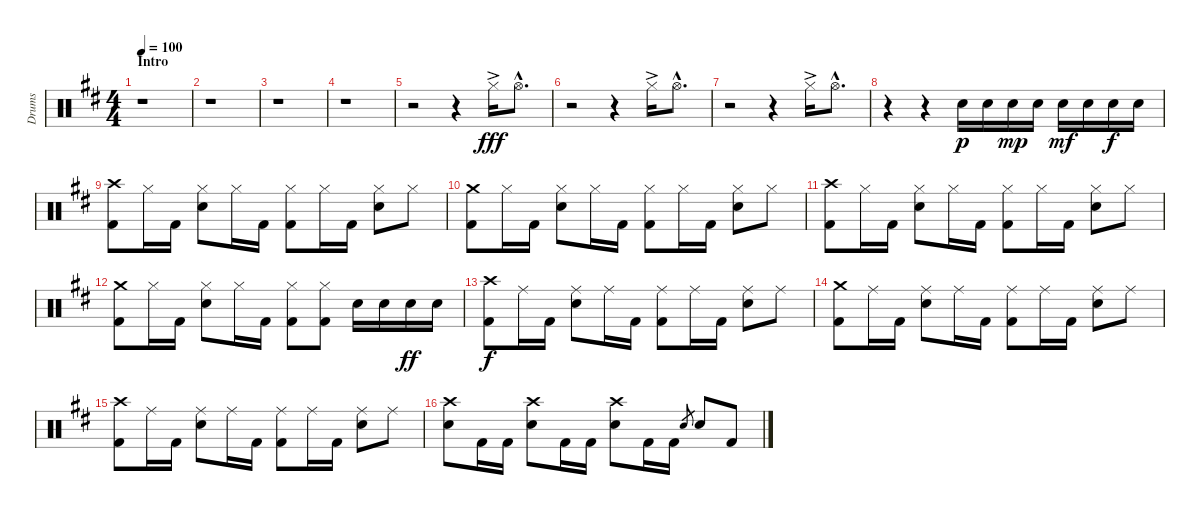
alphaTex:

\track ("Drums" "Drums") {instrument percussion}
\staff {score}
\articulation defaults
\ts (4 4)
\section ("" "Intro")
\tempo 100
\clef neutral
\ks bminor
r.1{dy fff} |
r.1 |
r.1 |
r.1 |
r.2 r.4 "Hi-Hat (closed)"{ac}.16 "Hi-Hat (open)"{hac}.8{d} |
r.2 r.4 "Hi-Hat (closed)"{ac}.16 "Hi-Hat (open)"{hac}.8{d} |
r.2 r.4 "Hi-Hat (closed)"{ac}.16 "Hi-Hat (open)"{hac}.8{d} |
r.4 r.4 "Snare (hit) 2".16{dy p} "Snare (hit) 2".16 "Snare (hit) 2".16{dy mp} "Snare (hit) 2".16 "Snare (hit) 2".16{dy mf} "Snare (hit) 2".16 "Snare (hit) 2".16{dy f} "Snare (hit) 2".16 |
("Crash high (hit)" "Kick (hit) 2").8 "Hi-Hat (closed)".16 "Kick (hit) 2".16 ("Hi-Hat (closed)" "Snare (hit) 2").8 "Hi-Hat (closed)".16 "Kick (hit) 2".16 ("Hi-Hat (closed)" "Kick (hit) 2").8 "Hi-Hat (closed)".16 "Kick (hit) 2".16 ("Hi-Hat (closed)" "Snare (hit) 2").8 "Hi-Hat (closed)".8 |
("Crash medium (hit)" "Kick (hit) 2").8 "Hi-Hat (closed)".16 "Kick (hit) 2".16 ("Hi-Hat (closed)" "Snare (hit) 2").8 "Hi-Hat (closed)".16 "Kick (hit) 2".16 ("Hi-Hat (closed)" "Kick (hit) 2").8 "Hi-Hat (closed)".16 "Kick (hit) 2".16 ("Hi-Hat (closed)" "Snare (hit) 2").8 "Hi-Hat (closed)".8 |
("Crash high (hit)" "Kick (hit) 2").8 "Hi-Hat (closed)".16 "Kick (hit) 2".16 ("Hi-Hat (closed)" "Snare (hit) 2").8 "Hi-Hat (closed)".16 "Kick (hit) 2".16 ("Hi-Hat (closed)" "Kick (hit) 2").8 "Hi-Hat (closed)".16 "Kick (hit) 2".16 ("Hi-Hat (closed)" "Snare (hit) 2").8 "Hi-Hat (closed)".8 |
("Crash medium (hit)" "Kick (hit) 2").8 "Hi-Hat (closed)".16 "Kick (hit) 2".16 ("Hi-Hat (closed)" "Snare (hit) 2").8 "Hi-Hat (closed)".16 "Kick (hit) 2".16 ("Hi-Hat (closed)" "Kick (hit) 2").8 ("Hi-Hat (closed)" "Kick (hit) 2").8 "Snare (hit) 2".16 "Snare (hit) 2".16 "Snare (hit) 2".16{dy ff} "Snare (hit) 2".16 |
("Crash high (hit)" "Kick (hit) 2").8{dy f} "Ride (middle)".16 "Kick (hit) 2".16 ("Ride (middle)" "Snare (hit) 2").8 "Ride (middle)".16 "Kick (hit) 2".16 ("Ride (middle)" "Kick (hit) 2").8 "Ride (middle)".16 "Kick (hit) 2".16 ("Ride (middle)" "Snare (hit) 2").8 "Ride (middle)".8 |
("Crash medium (hit)" "Kick (hit) 2").8 "Ride (middle)".16 "Kick (hit) 2".16 ("Ride (middle)" "Snare (hit) 2").8 "Ride (middle)".16 "Kick (hit) 2".16 ("Ride (middle)" "Kick (hit) 2").8 "Ride (middle)".16 "Kick (hit) 2".16 ("Ride (middle)" "Snare (hit) 2").8 "Ride (middle)".8 |
("Crash high (hit)" "Kick (hit) 2").8 "Ride (middle)".16 "Kick (hit) 2".16 ("Ride (middle)" "Snare (hit) 2").8 "Ride (middle)".16 "Kick (hit) 2".16 ("Ride (middle)" "Kick (hit) 2").8 "Ride (middle)".16 "Kick (hit) 2".16 ("Ride (middle)" "Snare (hit) 2").8 "Ride (middle)".8 |
("Crash high (hit)" "Snare (hit) 2").8 "Kick (hit) 2".16 "Kick (hit) 2".16 ("Crash high (hit)" "Snare (hit) 2").8 "Kick (hit) 2".16 "Kick (hit) 2".16 ("Crash high (hit)" "Snare (hit) 2").8 "Kick (hit) 2".16 "Kick (hit) 2".16 "Snare (hit) 2".8{gr} "Snare (hit) 2".8 "Kick (hit) 2".8
